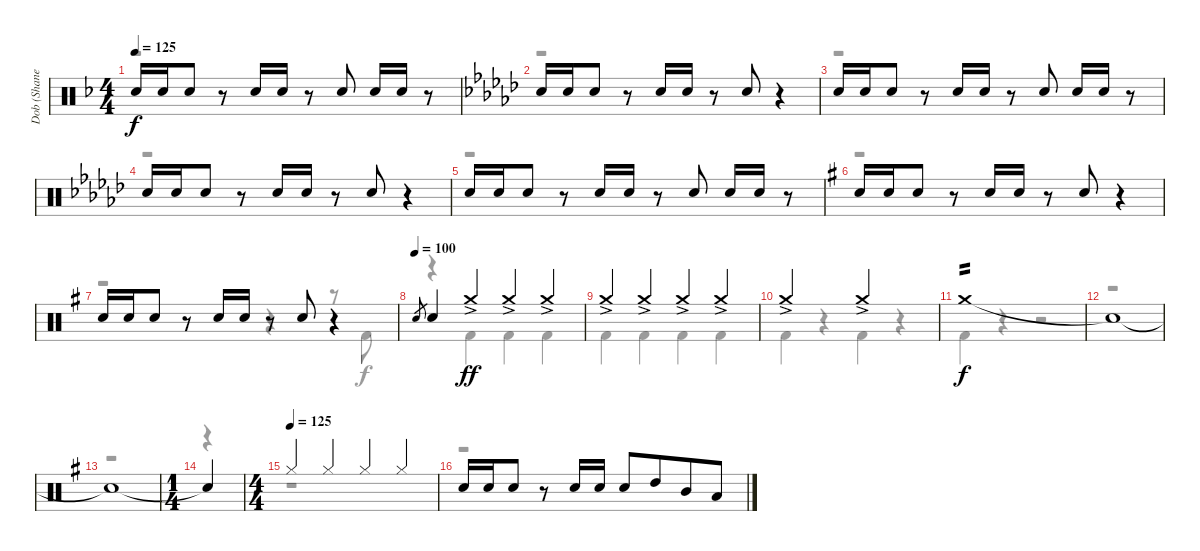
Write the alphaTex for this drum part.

\track ("Dob (Shane Gaalaas)" "Dob (Shane") {instrument percussion}
\staff {score}
\articulation defaults
\voice
\ts (4 4)
\tempo 125
\clef neutral
\ks f "Electric Snare (hit)".16{dy f} "Electric Snare (hit)".16 "Electric Snare (hit)".8
r.8 "Electric Snare (hit)".16 "Electric Snare (hit)".16 r.8 "Electric Snare (hit)".8 "Electric Snare (hit)".16 "Electric Snare (hit)".16 r.8 |
\ks gb "Electric Snare (hit)".16 "Electric Snare (hit)".16 "Electric Snare (hit)".8
r.8 "Electric Snare (hit)".16 "Electric Snare (hit)".16 r.8 "Electric Snare (hit)".8 r.4 |
"Electric Snare (hit)".16 "Electric Snare (hit)".16 "Electric Snare (hit)".8 r.8 "Electric Snare (hit)".16 "Electric Snare (hit)".16 r.8 "Electric Snare (hit)".8 "Electric Snare (hit)".16 "Electric Snare (hit)".16 r.8 |
"Electric Snare (hit)".16 "Electric Snare (hit)".16 "Electric Snare (hit)".8 r.8 "Electric Snare (hit)".16 "Electric Snare (hit)".16 r.8 "Electric Snare (hit)".8 r.4 |
"Electric Snare (hit)".16 "Electric Snare (hit)".16 "Electric Snare (hit)".8 r.8 "Electric Snare (hit)".16 "Electric Snare (hit)".16 r.8 "Electric Snare (hit)".8 "Electric Snare (hit)".16 "Electric Snare (hit)".16 r.8 |
\ks g "Electric Snare (hit)".16 "Electric Snare (hit)".16 "Electric Snare (hit)".8
r.8 "Electric Snare (hit)".16 "Electric Snare (hit)".16 r.8 "Electric Snare (hit)".8 r.4 |
"Electric Snare (hit)".16 "Electric Snare (hit)".16 "Electric Snare (hit)".8 r.8 "Electric Snare (hit)".16 "Electric Snare (hit)".16 r.8 "Electric Snare (hit)".8 r.4 |
\tempo (100)
"Electric Snare (hit)".8{gr} "Electric Snare (hit)".4 "Crash medium (hit)"{ac}.4{dy ff} "Crash medium (hit)"{ac}.4 "Crash medium (hit)"{ac}.4 |
"Crash medium (hit)"{ac}.4 "Crash medium (hit)"{ac}.4 "Crash medium (hit)"{ac}.4 "Crash medium (hit)"{ac}.4 |
"Crash medium (hit)"{ac}.2 "Crash medium (hit)"{ac}.2 |
"Crash medium (hit)".1{tp 2 dy f} |
"Snare (hit)"{t}.1 |
"Snare (hit)"{t}.1 |
\ts (1 4)
"Snare (hit)"{t}.4 |
\ts (4 4)
\tempo (125)
"Hi-Hat (closed)".4 "Hi-Hat (closed)".4 "Hi-Hat (closed)".4 "Hi-Hat (closed)".4 |
"Electric Snare (hit)".16 "Electric Snare (hit)".16 "Electric Snare (hit)".8 r.8 "Electric Snare (hit)".16 "Electric Snare (hit)".16 "Electric Snare (hit)".8 "High Tom (hit)".8{beam merge} "Mid Tom (hit)".8 "Low Tom (hit)".8
\voice
\clef neutral
\ottava regular
\simile none
\ks f
r.1{dy f} |
\ks gb
r.1 |
r.1 |
r.1 |
r.1 |
\ks g
r.1 |
r.2 r.4 r.8 "Kick (hit) 2".8 |
r.4 "Kick (hit) 2".4 "Kick (hit) 2".4 "Kick (hit) 2".4 |
"Kick (hit) 2".4 "Kick (hit) 2".4 "Kick (hit) 2".4 "Kick (hit) 2".4 |
"Kick (hit) 2".4 r.4 "Kick (hit) 2".4 r.4 |
"Kick (hit) 2".4 r.4 r.2 |
r.1 |
r.1 |
r.4 |
r.1 |
r.1
